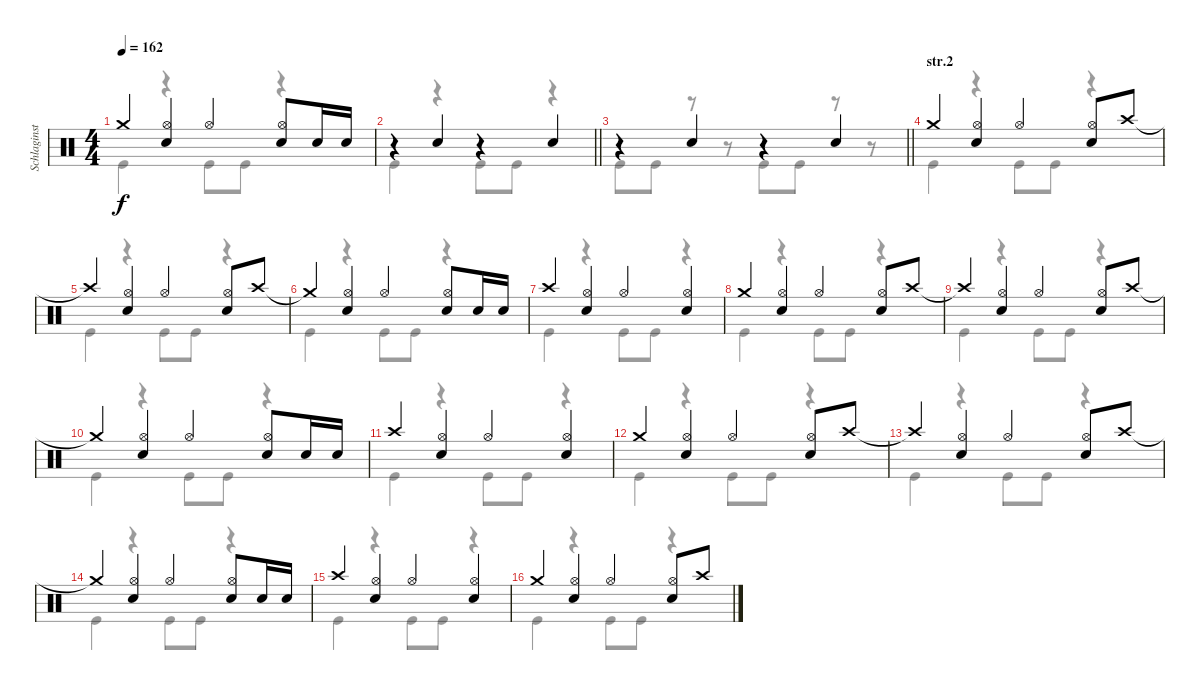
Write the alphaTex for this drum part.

\track ("Schlaginstrumente - Auswahl" "Schlaginst") {instrument percussion}
\staff {score}
\articulation defaults
\voice
\ts (4 4)
\tempo 162
\clef neutral
\ks c "Crash medium (hit)"{t}.4{dy f}
("Hi-Hat (open)" "Snare (hit) 2").4 "Hi-Hat (open)".4 ("Hi-Hat (open)" "Snare (hit) 2").8 "Snare (hit) 2".16 "Snare (hit) 2".16 |
\barLineRight lightlight
r.4 "Snare (hit) 2".4 r.4 "Snare (hit) 2".4 |
\barLineRight lightlight
r.4 "Snare (hit) 2".4 r.4 "Snare (hit) 2".4 |
\section ("" "str.2")
"Crash medium (hit)".4 ("Hi-Hat (open)" "Snare (hit) 2").4 "Hi-Hat (open)".4 ("Hi-Hat (open)" "Snare (hit) 2").8 "Crash high (hit)".8 |
"Crash high (hit)"{t}.4 ("Hi-Hat (open)" "Snare (hit) 2").4 "Hi-Hat (open)".4 ("Hi-Hat (open)" "Snare (hit) 2").8 "Crash high (hit)".8 |
"Crash medium (hit)"{t}.4 ("Hi-Hat (open)" "Snare (hit) 2").4 "Hi-Hat (open)".4 ("Hi-Hat (open)" "Snare (hit) 2").8 "Snare (hit) 2".16 "Snare (hit) 2".16 |
"Crash high (hit)".4 ("Hi-Hat (open)" "Snare (hit) 2").4 "Hi-Hat (open)".4 ("Hi-Hat (open)" "Snare (hit) 2").4 |
"Crash medium (hit)".4 ("Hi-Hat (open)" "Snare (hit) 2").4 "Hi-Hat (open)".4 ("Hi-Hat (open)" "Snare (hit) 2").8 "Crash high (hit)".8 |
"Crash high (hit)"{t}.4 ("Hi-Hat (open)" "Snare (hit) 2").4 "Hi-Hat (open)".4 ("Hi-Hat (open)" "Snare (hit) 2").8 "Crash high (hit)".8 |
"Crash medium (hit)"{t}.4 ("Hi-Hat (open)" "Snare (hit) 2").4 "Hi-Hat (open)".4 ("Hi-Hat (open)" "Snare (hit) 2").8 "Snare (hit) 2".16 "Snare (hit) 2".16 |
"Crash high (hit)".4 ("Hi-Hat (open)" "Snare (hit) 2").4 "Hi-Hat (open)".4 ("Hi-Hat (open)" "Snare (hit) 2").4 |
"Crash medium (hit)".4 ("Hi-Hat (open)" "Snare (hit) 2").4 "Hi-Hat (open)".4 ("Hi-Hat (open)" "Snare (hit) 2").8 "Crash high (hit)".8 |
"Crash high (hit)"{t}.4 ("Hi-Hat (open)" "Snare (hit) 2").4 "Hi-Hat (open)".4 ("Hi-Hat (open)" "Snare (hit) 2").8 "Crash high (hit)".8 |
"Crash medium (hit)"{t}.4 ("Hi-Hat (open)" "Snare (hit) 2").4 "Hi-Hat (open)".4 ("Hi-Hat (open)" "Snare (hit) 2").8 "Snare (hit) 2".16 "Snare (hit) 2".16 |
"Crash high (hit)".4 ("Hi-Hat (open)" "Snare (hit) 2").4 "Hi-Hat (open)".4 ("Hi-Hat (open)" "Snare (hit) 2").4 |
"Crash medium (hit)".4 ("Hi-Hat (open)" "Snare (hit) 2").4 "Hi-Hat (open)".4 ("Hi-Hat (open)" "Snare (hit) 2").8 "Crash high (hit)".8
\voice
\clef neutral
\ottava regular
\simile none
\ks c "Kick (hit)".4{dy f}
r.4 "Kick (hit)".8 "Kick (hit)".8 r.4 |
\barLineRight lightlight "Kick (hit)".4
r.4 "Kick (hit)".8 "Kick (hit)".8 r.4 |
\barLineRight lightlight "Kick (hit)".8 "Kick (hit)".8
r.8 r.8 "Kick (hit)".8 "Kick (hit)".8 r.8 r.8 |
"Kick (hit)".4 r.4 "Kick (hit)".8 "Kick (hit)".8 r.4 |
"Kick (hit)".4 r.4 "Kick (hit)".8 "Kick (hit)".8 r.4 |
"Kick (hit)".4 r.4 "Kick (hit)".8 "Kick (hit)".8 r.4 |
"Kick (hit)".4 r.4 "Kick (hit)".8 "Kick (hit)".8 r.4 |
"Kick (hit)".4 r.4 "Kick (hit)".8 "Kick (hit)".8 r.4 |
"Kick (hit)".4 r.4 "Kick (hit)".8 "Kick (hit)".8 r.4 |
"Kick (hit)".4 r.4 "Kick (hit)".8 "Kick (hit)".8 r.4 |
"Kick (hit)".4 r.4 "Kick (hit)".8 "Kick (hit)".8 r.4 |
"Kick (hit)".4 r.4 "Kick (hit)".8 "Kick (hit)".8 r.4 |
"Kick (hit)".4 r.4 "Kick (hit)".8 "Kick (hit)".8 r.4 |
"Kick (hit)".4 r.4 "Kick (hit)".8 "Kick (hit)".8 r.4 |
"Kick (hit)".4 r.4 "Kick (hit)".8 "Kick (hit)".8 r.4 |
"Kick (hit)".4 r.4 "Kick (hit)".8 "Kick (hit)".8 r.4
